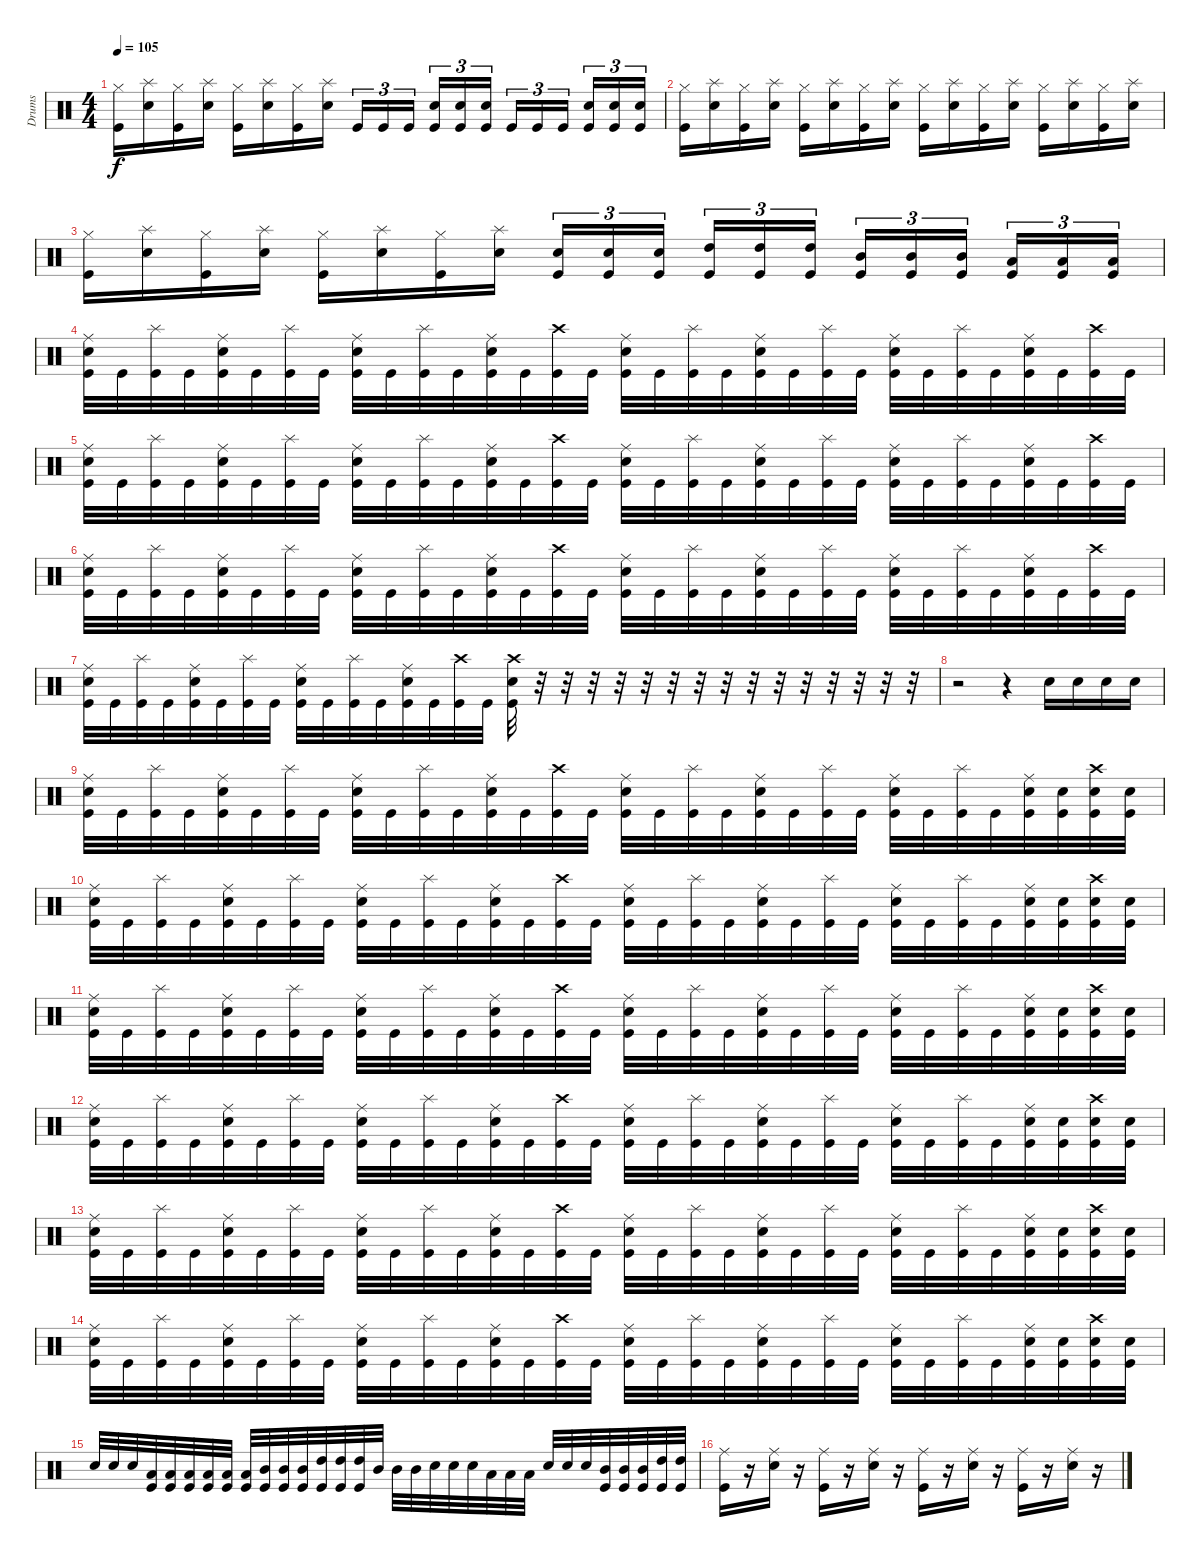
\track ("Drums" "Drums") {instrument percussion}
\staff {score}
\articulation defaults
\ts (4 4)
\tempo 105
\clef neutral
\ks c
("Hi-Hat (closed)" "Kick (hit)").16{dy f} ("Splash (hit)" "Snare (hit) 2").16 ("Hi-Hat (closed)" "Kick (hit)").16 ("Splash (hit)" "Snare (hit) 2").16 ("Hi-Hat (closed)" "Kick (hit)").16 ("Splash (hit)" "Snare (hit) 2").16 ("Hi-Hat (closed)" "Kick (hit)").16 ("Splash (hit)" "Snare (hit) 2").16 "Kick (hit)".16{tu (3 2)} "Kick (hit)".16{tu (3 2)} "Kick (hit)".16{tu (3 2)} ("Snare (hit) 2" "Kick (hit)").16{tu (3 2)} ("Snare (hit) 2" "Kick (hit)").16{tu (3 2)} ("Snare (hit) 2" "Kick (hit)").16{tu (3 2)} "Kick (hit)".16{tu (3 2)} "Kick (hit)".16{tu (3 2)} "Kick (hit)".16{tu (3 2)} ("Snare (hit) 2" "Kick (hit)").16{tu (3 2)} ("Snare (hit) 2" "Kick (hit)").16{tu (3 2)} ("Snare (hit) 2" "Kick (hit)").16{tu (3 2)} |
("Hi-Hat (closed)" "Kick (hit)").16 ("Splash (hit)" "Snare (hit) 2").16 ("Hi-Hat (closed)" "Kick (hit)").16 ("Splash (hit)" "Snare (hit) 2").16 ("Hi-Hat (closed)" "Kick (hit)").16 ("Splash (hit)" "Snare (hit) 2").16 ("Hi-Hat (closed)" "Kick (hit)").16 ("Splash (hit)" "Snare (hit) 2").16 ("Hi-Hat (closed)" "Kick (hit)").16 ("Splash (hit)" "Snare (hit) 2").16 ("Hi-Hat (closed)" "Kick (hit)").16 ("Splash (hit)" "Snare (hit) 2").16 ("Hi-Hat (closed)" "Kick (hit)").16 ("Splash (hit)" "Snare (hit) 2").16 ("Hi-Hat (closed)" "Kick (hit)").16 ("Splash (hit)" "Snare (hit) 2").16 |
("Hi-Hat (closed)" "Kick (hit)").16 ("Splash (hit)" "Snare (hit) 2").16 ("Hi-Hat (closed)" "Kick (hit)").16 ("Splash (hit)" "Snare (hit) 2").16 ("Hi-Hat (closed)" "Kick (hit)").16 ("Splash (hit)" "Snare (hit) 2").16 ("Hi-Hat (closed)" "Kick (hit)").16 ("Splash (hit)" "Snare (hit) 2").16 ("Snare (hit) 2" "Kick (hit)").16{tu (3 2)} ("Snare (hit) 2" "Kick (hit)").16{tu (3 2)} ("Snare (hit) 2" "Kick (hit)").16{tu (3 2)} ("High Tom (hit)" "Kick (hit)").16{tu (3 2)} ("High Tom (hit)" "Kick (hit)").16{tu (3 2)} ("High Tom (hit)" "Kick (hit)").16{tu (3 2)} ("Mid Tom (hit)" "Kick (hit)").16{tu (3 2)} ("Mid Tom (hit)" "Kick (hit)").16{tu (3 2)} ("Mid Tom (hit)" "Kick (hit)").16{tu (3 2)} ("Low Tom (hit)" "Kick (hit)").16{tu (3 2)} ("Low Tom (hit)" "Kick (hit)").16{tu (3 2)} ("Low Tom (hit)" "Kick (hit)").16{tu (3 2)} |
("Ride (middle)" "Snare (hit) 2" "Kick (hit)").32 "Kick (hit)".32 ("Splash (hit)" "Kick (hit)").32 "Kick (hit)".32 ("Ride (middle)" "Snare (hit) 2" "Kick (hit)").32 "Kick (hit)".32 ("Splash (hit)" "Kick (hit)").32 "Kick (hit)".32 ("Ride (middle)" "Snare (hit) 2" "Kick (hit)").32 "Kick (hit)".32 ("Splash (hit)" "Kick (hit)").32 "Kick (hit)".32 ("Ride (middle)" "Snare (hit) 2" "Kick (hit)").32 "Kick (hit)".32 ("Crash high (hit)" "Kick (hit)").32 "Kick (hit)".32 ("Ride (middle)" "Snare (hit) 2" "Kick (hit)").32 "Kick (hit)".32 ("Splash (hit)" "Kick (hit)").32 "Kick (hit)".32 ("Ride (middle)" "Snare (hit) 2" "Kick (hit)").32 "Kick (hit)".32 ("Splash (hit)" "Kick (hit)").32 "Kick (hit)".32 ("Ride (middle)" "Snare (hit) 2" "Kick (hit)").32 "Kick (hit)".32 ("Splash (hit)" "Kick (hit)").32 "Kick (hit)".32 ("Ride (middle)" "Snare (hit) 2" "Kick (hit)").32 "Kick (hit)".32 ("Crash high (hit)" "Kick (hit)").32 "Kick (hit)".32 |
("Ride (middle)" "Snare (hit) 2" "Kick (hit)").32 "Kick (hit)".32 ("Splash (hit)" "Kick (hit)").32 "Kick (hit)".32 ("Ride (middle)" "Snare (hit) 2" "Kick (hit)").32 "Kick (hit)".32 ("Splash (hit)" "Kick (hit)").32 "Kick (hit)".32 ("Ride (middle)" "Snare (hit) 2" "Kick (hit)").32 "Kick (hit)".32 ("Splash (hit)" "Kick (hit)").32 "Kick (hit)".32 ("Ride (middle)" "Snare (hit) 2" "Kick (hit)").32 "Kick (hit)".32 ("Crash high (hit)" "Kick (hit)").32 "Kick (hit)".32 ("Ride (middle)" "Snare (hit) 2" "Kick (hit)").32 "Kick (hit)".32 ("Splash (hit)" "Kick (hit)").32 "Kick (hit)".32 ("Ride (middle)" "Snare (hit) 2" "Kick (hit)").32 "Kick (hit)".32 ("Splash (hit)" "Kick (hit)").32 "Kick (hit)".32 ("Ride (middle)" "Snare (hit) 2" "Kick (hit)").32 "Kick (hit)".32 ("Splash (hit)" "Kick (hit)").32 "Kick (hit)".32 ("Ride (middle)" "Snare (hit) 2" "Kick (hit)").32 "Kick (hit)".32 ("Crash high (hit)" "Kick (hit)").32 "Kick (hit)".32 |
("Ride (middle)" "Snare (hit) 2" "Kick (hit)").32 "Kick (hit)".32 ("Splash (hit)" "Kick (hit)").32 "Kick (hit)".32 ("Ride (middle)" "Snare (hit) 2" "Kick (hit)").32 "Kick (hit)".32 ("Splash (hit)" "Kick (hit)").32 "Kick (hit)".32 ("Ride (middle)" "Snare (hit) 2" "Kick (hit)").32 "Kick (hit)".32 ("Splash (hit)" "Kick (hit)").32 "Kick (hit)".32 ("Ride (middle)" "Snare (hit) 2" "Kick (hit)").32 "Kick (hit)".32 ("Crash high (hit)" "Kick (hit)").32 "Kick (hit)".32 ("Ride (middle)" "Snare (hit) 2" "Kick (hit)").32 "Kick (hit)".32 ("Splash (hit)" "Kick (hit)").32 "Kick (hit)".32 ("Ride (middle)" "Snare (hit) 2" "Kick (hit)").32 "Kick (hit)".32 ("Splash (hit)" "Kick (hit)").32 "Kick (hit)".32 ("Ride (middle)" "Snare (hit) 2" "Kick (hit)").32 "Kick (hit)".32 ("Splash (hit)" "Kick (hit)").32 "Kick (hit)".32 ("Ride (middle)" "Snare (hit) 2" "Kick (hit)").32 "Kick (hit)".32 ("Crash high (hit)" "Kick (hit)").32 "Kick (hit)".32 |
("Ride (middle)" "Snare (hit) 2" "Kick (hit)").32 "Kick (hit)".32 ("Splash (hit)" "Kick (hit)").32 "Kick (hit)".32 ("Ride (middle)" "Snare (hit) 2" "Kick (hit)").32 "Kick (hit)".32 ("Splash (hit)" "Kick (hit)").32 "Kick (hit)".32 ("Ride (middle)" "Snare (hit) 2" "Kick (hit)").32 "Kick (hit)".32 ("Splash (hit)" "Kick (hit)").32 "Kick (hit)".32 ("Ride (middle)" "Snare (hit) 2" "Kick (hit)").32 "Kick (hit)".32 ("Crash high (hit)" "Kick (hit)").32 "Kick (hit)".32 ("Crash high (hit)" "Snare (hit) 2" "Kick (hit)").32 r.32 r.32 r.32 r.32 r.32 r.32 r.32 r.32 r.32 r.32 r.32 r.32 r.32 r.32 r.32 |
r.2 r.4 "Snare (hit) 2".16 "Snare (hit) 2".16 "Snare (hit) 2".16 "Snare (hit) 2".16 |
("Ride (middle)" "Snare (hit) 2" "Kick (hit)").32 "Kick (hit)".32 ("Splash (hit)" "Kick (hit)").32 "Kick (hit)".32 ("Ride (middle)" "Snare (hit) 2" "Kick (hit)").32 "Kick (hit)".32 ("Splash (hit)" "Kick (hit)").32 "Kick (hit)".32 ("Ride (middle)" "Snare (hit) 2" "Kick (hit)").32 "Kick (hit)".32 ("Splash (hit)" "Kick (hit)").32 "Kick (hit)".32 ("Ride (middle)" "Snare (hit) 2" "Kick (hit)").32 "Kick (hit)".32 ("Crash high (hit)" "Kick (hit)").32 "Kick (hit)".32 ("Ride (middle)" "Snare (hit) 2" "Kick (hit)").32 "Kick (hit)".32 ("Splash (hit)" "Kick (hit)").32 "Kick (hit)".32 ("Ride (middle)" "Snare (hit) 2" "Kick (hit)").32 "Kick (hit)".32 ("Splash (hit)" "Kick (hit)").32 "Kick (hit)".32 ("Ride (middle)" "Snare (hit) 2" "Kick (hit)").32 "Kick (hit)".32 ("Splash (hit)" "Kick (hit)").32 "Kick (hit)".32 ("Ride (middle)" "Snare (hit) 2" "Kick (hit)").32 ("Snare (hit) 2" "Kick (hit)").32 ("Crash high (hit)" "Snare (hit) 2" "Kick (hit)").32 ("Snare (hit) 2" "Kick (hit)").32 |
("Ride (middle)" "Snare (hit) 2" "Kick (hit)").32 "Kick (hit)".32 ("Splash (hit)" "Kick (hit)").32 "Kick (hit)".32 ("Ride (middle)" "Snare (hit) 2" "Kick (hit)").32 "Kick (hit)".32 ("Splash (hit)" "Kick (hit)").32 "Kick (hit)".32 ("Ride (middle)" "Snare (hit) 2" "Kick (hit)").32 "Kick (hit)".32 ("Splash (hit)" "Kick (hit)").32 "Kick (hit)".32 ("Ride (middle)" "Snare (hit) 2" "Kick (hit)").32 "Kick (hit)".32 ("Crash high (hit)" "Kick (hit)").32 "Kick (hit)".32 ("Ride (middle)" "Snare (hit) 2" "Kick (hit)").32 "Kick (hit)".32 ("Splash (hit)" "Kick (hit)").32 "Kick (hit)".32 ("Ride (middle)" "Snare (hit) 2" "Kick (hit)").32 "Kick (hit)".32 ("Splash (hit)" "Kick (hit)").32 "Kick (hit)".32 ("Ride (middle)" "Snare (hit) 2" "Kick (hit)").32 "Kick (hit)".32 ("Splash (hit)" "Kick (hit)").32 "Kick (hit)".32 ("Ride (middle)" "Snare (hit) 2" "Kick (hit)").32 ("Snare (hit) 2" "Kick (hit)").32 ("Crash high (hit)" "Snare (hit) 2" "Kick (hit)").32 ("Snare (hit) 2" "Kick (hit)").32 |
("Ride (middle)" "Snare (hit) 2" "Kick (hit)").32 "Kick (hit)".32 ("Splash (hit)" "Kick (hit)").32 "Kick (hit)".32 ("Ride (middle)" "Snare (hit) 2" "Kick (hit)").32 "Kick (hit)".32 ("Splash (hit)" "Kick (hit)").32 "Kick (hit)".32 ("Ride (middle)" "Snare (hit) 2" "Kick (hit)").32 "Kick (hit)".32 ("Splash (hit)" "Kick (hit)").32 "Kick (hit)".32 ("Ride (middle)" "Snare (hit) 2" "Kick (hit)").32 "Kick (hit)".32 ("Crash high (hit)" "Kick (hit)").32 "Kick (hit)".32 ("Ride (middle)" "Snare (hit) 2" "Kick (hit)").32 "Kick (hit)".32 ("Splash (hit)" "Kick (hit)").32 "Kick (hit)".32 ("Ride (middle)" "Snare (hit) 2" "Kick (hit)").32 "Kick (hit)".32 ("Splash (hit)" "Kick (hit)").32 "Kick (hit)".32 ("Ride (middle)" "Snare (hit) 2" "Kick (hit)").32 "Kick (hit)".32 ("Splash (hit)" "Kick (hit)").32 "Kick (hit)".32 ("Ride (middle)" "Snare (hit) 2" "Kick (hit)").32 ("Snare (hit) 2" "Kick (hit)").32 ("Crash high (hit)" "Snare (hit) 2" "Kick (hit)").32 ("Snare (hit) 2" "Kick (hit)").32 |
("Ride (middle)" "Snare (hit) 2" "Kick (hit)").32 "Kick (hit)".32 ("Splash (hit)" "Kick (hit)").32 "Kick (hit)".32 ("Ride (middle)" "Snare (hit) 2" "Kick (hit)").32 "Kick (hit)".32 ("Splash (hit)" "Kick (hit)").32 "Kick (hit)".32 ("Ride (middle)" "Snare (hit) 2" "Kick (hit)").32 "Kick (hit)".32 ("Splash (hit)" "Kick (hit)").32 "Kick (hit)".32 ("Ride (middle)" "Snare (hit) 2" "Kick (hit)").32 "Kick (hit)".32 ("Crash high (hit)" "Kick (hit)").32 "Kick (hit)".32 ("Ride (middle)" "Snare (hit) 2" "Kick (hit)").32 "Kick (hit)".32 ("Splash (hit)" "Kick (hit)").32 "Kick (hit)".32 ("Ride (middle)" "Snare (hit) 2" "Kick (hit)").32 "Kick (hit)".32 ("Splash (hit)" "Kick (hit)").32 "Kick (hit)".32 ("Ride (middle)" "Snare (hit) 2" "Kick (hit)").32 "Kick (hit)".32 ("Splash (hit)" "Kick (hit)").32 "Kick (hit)".32 ("Ride (middle)" "Snare (hit) 2" "Kick (hit)").32 ("Snare (hit) 2" "Kick (hit)").32 ("Crash high (hit)" "Snare (hit) 2" "Kick (hit)").32 ("Snare (hit) 2" "Kick (hit)").32 |
("Ride (middle)" "Snare (hit) 2" "Kick (hit)").32 "Kick (hit)".32 ("Splash (hit)" "Kick (hit)").32 "Kick (hit)".32 ("Ride (middle)" "Snare (hit) 2" "Kick (hit)").32 "Kick (hit)".32 ("Splash (hit)" "Kick (hit)").32 "Kick (hit)".32 ("Ride (middle)" "Snare (hit) 2" "Kick (hit)").32 "Kick (hit)".32 ("Splash (hit)" "Kick (hit)").32 "Kick (hit)".32 ("Ride (middle)" "Snare (hit) 2" "Kick (hit)").32 "Kick (hit)".32 ("Crash high (hit)" "Kick (hit)").32 "Kick (hit)".32 ("Ride (middle)" "Snare (hit) 2" "Kick (hit)").32 "Kick (hit)".32 ("Splash (hit)" "Kick (hit)").32 "Kick (hit)".32 ("Ride (middle)" "Snare (hit) 2" "Kick (hit)").32 "Kick (hit)".32 ("Splash (hit)" "Kick (hit)").32 "Kick (hit)".32 ("Ride (middle)" "Snare (hit) 2" "Kick (hit)").32 "Kick (hit)".32 ("Splash (hit)" "Kick (hit)").32 "Kick (hit)".32 ("Ride (middle)" "Snare (hit) 2" "Kick (hit)").32 ("Snare (hit) 2" "Kick (hit)").32 ("Crash high (hit)" "Snare (hit) 2" "Kick (hit)").32 ("Snare (hit) 2" "Kick (hit)").32 |
("Ride (middle)" "Snare (hit) 2" "Kick (hit)").32 "Kick (hit)".32 ("Splash (hit)" "Kick (hit)").32 "Kick (hit)".32 ("Ride (middle)" "Snare (hit) 2" "Kick (hit)").32 "Kick (hit)".32 ("Splash (hit)" "Kick (hit)").32 "Kick (hit)".32 ("Ride (middle)" "Snare (hit) 2" "Kick (hit)").32 "Kick (hit)".32 ("Splash (hit)" "Kick (hit)").32 "Kick (hit)".32 ("Ride (middle)" "Snare (hit) 2" "Kick (hit)").32 "Kick (hit)".32 ("Crash high (hit)" "Kick (hit)").32 "Kick (hit)".32 ("Ride (middle)" "Snare (hit) 2" "Kick (hit)").32 "Kick (hit)".32 ("Splash (hit)" "Kick (hit)").32 "Kick (hit)".32 ("Ride (middle)" "Snare (hit) 2" "Kick (hit)").32 "Kick (hit)".32 ("Splash (hit)" "Kick (hit)").32 "Kick (hit)".32 ("Ride (middle)" "Snare (hit) 2" "Kick (hit)").32 "Kick (hit)".32 ("Splash (hit)" "Kick (hit)").32 "Kick (hit)".32 ("Ride (middle)" "Snare (hit) 2" "Kick (hit)").32 ("Snare (hit) 2" "Kick (hit)").32 ("Crash high (hit)" "Snare (hit) 2" "Kick (hit)").32 ("Snare (hit) 2" "Kick (hit)").32 |
"Snare (hit) 2".32 "Snare (hit) 2".32 "Snare (hit) 2".32 ("Low Floor Tom (hit)" "Kick (hit)").32 ("Low Floor Tom (hit)" "Kick (hit)").32 ("Low Floor Tom (hit)" "Kick (hit)").32 ("Low Tom (hit)" "Kick (hit)").32 ("Low Tom (hit)" "Kick (hit)").32 ("Low Tom (hit)" "Kick (hit)").32 ("Mid Tom (hit)" "Kick (hit)").32 ("Mid Tom (hit)" "Kick (hit)").32 ("Mid Tom (hit)" "Kick (hit)").32 ("High Tom (hit)" "Kick (hit)").32 ("High Tom (hit)" "Kick (hit)").32 ("High Tom (hit)" "Kick (hit)").32 "Mid Tom (hit)".32 "Mid Tom (hit)".32 "Mid Tom (hit)".32 "Snare (hit) 2".32 "Snare (hit) 2".32 "Snare (hit) 2".32 "Low Tom (hit)".32 "Low Tom (hit)".32 "Low Tom (hit)".32 "Snare (hit) 2".32 "Snare (hit) 2".32 "Snare (hit) 2".32 ("Mid Tom (hit)" "Kick (hit)").32 ("Mid Tom (hit)" "Kick (hit)").32 ("Mid Tom (hit)" "Kick (hit)").32 ("High Tom (hit)" "Kick (hit)").32 ("High Tom (hit)" "Kick (hit)").32 |
("Ride (middle)" "Kick (hit)").16 r.16 ("Ride (middle)" "Snare (hit) 2").16 r.16 ("Ride (middle)" "Kick (hit)").16 r.16 ("Ride (middle)" "Snare (hit) 2").16 r.16 ("Ride (middle)" "Kick (hit)").16 r.16 ("Ride (middle)" "Snare (hit) 2").16 r.16 ("Ride (middle)" "Kick (hit)").16 r.16 ("Ride (middle)" "Snare (hit) 2").16 r.16
